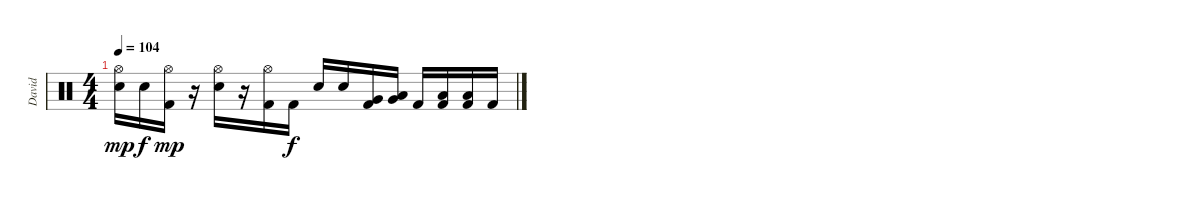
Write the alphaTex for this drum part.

\track ("David" "David") {instrument percussion}
\staff {score}
\articulation defaults
\ts (4 4)
\tempo 104
\clef neutral
\ks c
("Hi-Hat (open)" "Snare (hit) 2").16{dy mp} "Snare (hit) 2".16{dy f} ("Hi-Hat (open)" "Kick (hit) 2").16{dy mp} r.16 ("Hi-Hat (open)" "Snare (hit) 2").16 r.16 ("Hi-Hat (open)" "Kick (hit) 2").16 "Kick (hit) 2".16{dy f} "Snare (hit) 2".16 "Snare (hit) 2".16 ("Very Low Tom (hit)" "Kick (hit) 2").16 ("Very Low Tom (hit)" "Low Floor Tom (hit)").16 "Kick (hit) 2".16 ("Low Floor Tom (hit)" "Kick (hit) 2").16 ("Low Floor Tom (hit)" "Kick (hit) 2").16 "Kick (hit) 2".16
